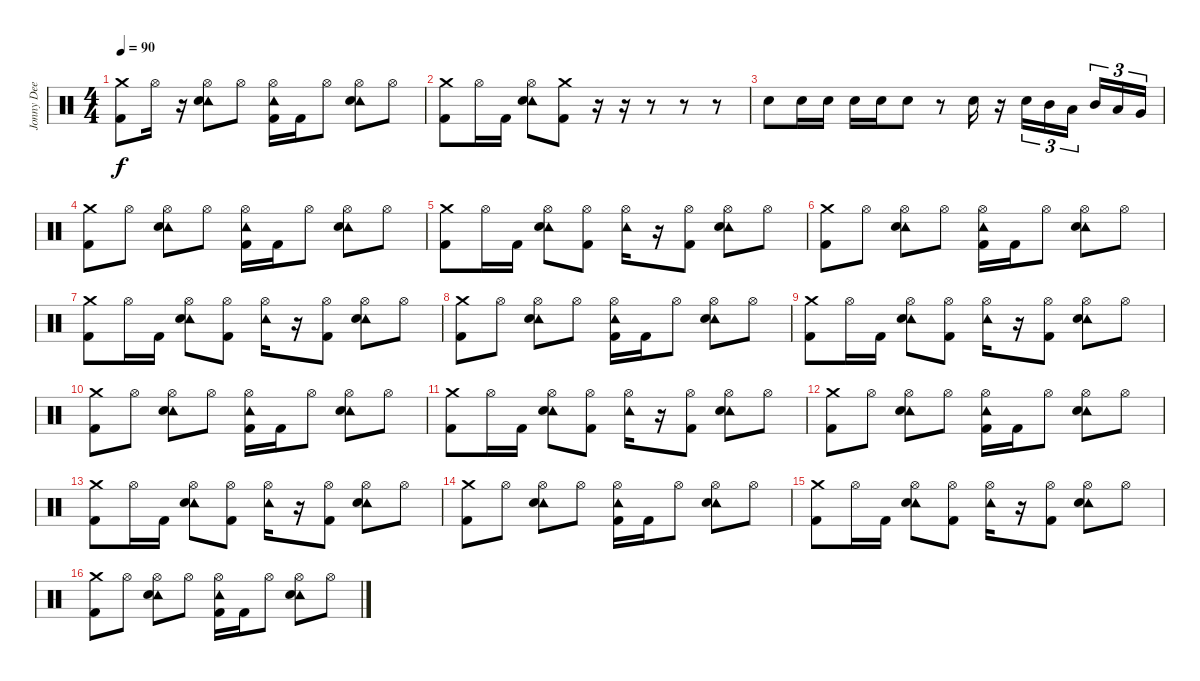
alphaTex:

\track ("Jonny Dee" "Jonny Dee") {instrument percussion}
\staff {score}
\articulation defaults
\ts (4 4)
\tempo 90
\clef neutral
\ks c
("Crash medium (hit)" "Kick (hit) 2").8{dy f} "Hi-Hat (open)".16 r.16 ("Tambourine (hit)" "Hi-Hat (open)" "Snare (hit) 2").8 "Hi-Hat (open)".8 ("Tambourine (hit)" "Hi-Hat (open)" "Kick (hit) 2").16 "Kick (hit) 2".16 "Hi-Hat (open)".8 ("Tambourine (hit)" "Hi-Hat (open)" "Snare (hit) 2").8 "Hi-Hat (open)".8 |
("Crash medium (hit)" "Kick (hit) 2").8 "Hi-Hat (open)".16 "Kick (hit) 2".16 ("Tambourine (hit)" "Hi-Hat (open)" "Snare (hit) 2").8 ("Crash medium (hit)" "Kick (hit) 2").8 r.16 r.16 r.8 r.8 r.8 |
"Snare (hit) 2".8 "Snare (hit) 2".16 "Snare (hit) 2".16 "Snare (hit) 2".16 "Snare (hit) 2".16 "Snare (hit) 2".8 r.8 "Snare (hit) 2".16 r.16 "Snare (hit) 2".16{tu (3 2)} "Mid Tom (hit)".16{tu (3 2)} "Low Tom (hit)".16{tu (3 2) beam splitsecondary} "Mid Tom (hit)".16{tu (3 2)} "Low Tom (hit)".16{tu (3 2)} "Very Low Tom (hit)".16{tu (3 2)} |
("Crash medium (hit)" "Kick (hit) 2").8 "Hi-Hat (open)".8 ("Tambourine (hit)" "Hi-Hat (open)" "Snare (hit) 2").8 "Hi-Hat (open)".8 ("Tambourine (hit)" "Hi-Hat (open)" "Kick (hit) 2").16 "Kick (hit) 2".16 "Hi-Hat (open)".8 ("Tambourine (hit)" "Hi-Hat (open)" "Snare (hit) 2").8 "Hi-Hat (open)".8 |
("Crash medium (hit)" "Kick (hit) 2").8 "Hi-Hat (open)".16 "Kick (hit) 2".16 ("Tambourine (hit)" "Hi-Hat (open)" "Snare (hit) 2").8 ("Hi-Hat (open)" "Kick (hit) 2").8 ("Tambourine (hit)" "Hi-Hat (open)").16 r.16 ("Hi-Hat (open)" "Kick (hit) 2").8 ("Tambourine (hit)" "Hi-Hat (open)" "Snare (hit) 2").8 "Hi-Hat (open)".8 |
("Crash medium (hit)" "Kick (hit) 2").8 "Hi-Hat (open)".8 ("Tambourine (hit)" "Hi-Hat (open)" "Snare (hit) 2").8 "Hi-Hat (open)".8 ("Tambourine (hit)" "Hi-Hat (open)" "Kick (hit) 2").16 "Kick (hit) 2".16 "Hi-Hat (open)".8 ("Tambourine (hit)" "Hi-Hat (open)" "Snare (hit) 2").8 "Hi-Hat (open)".8 |
("Crash medium (hit)" "Kick (hit) 2").8 "Hi-Hat (open)".16 "Kick (hit) 2".16 ("Tambourine (hit)" "Hi-Hat (open)" "Snare (hit) 2").8 ("Hi-Hat (open)" "Kick (hit) 2").8 ("Tambourine (hit)" "Hi-Hat (open)").16 r.16 ("Hi-Hat (open)" "Kick (hit) 2").8 ("Tambourine (hit)" "Hi-Hat (open)" "Snare (hit) 2").8 "Hi-Hat (open)".8 |
("Crash medium (hit)" "Kick (hit) 2").8 "Hi-Hat (open)".8 ("Tambourine (hit)" "Hi-Hat (open)" "Snare (hit) 2").8 "Hi-Hat (open)".8 ("Tambourine (hit)" "Hi-Hat (open)" "Kick (hit) 2").16 "Kick (hit) 2".16 "Hi-Hat (open)".8 ("Tambourine (hit)" "Hi-Hat (open)" "Snare (hit) 2").8 "Hi-Hat (open)".8 |
("Crash medium (hit)" "Kick (hit) 2").8 "Hi-Hat (open)".16 "Kick (hit) 2".16 ("Tambourine (hit)" "Hi-Hat (open)" "Snare (hit) 2").8 ("Hi-Hat (open)" "Kick (hit) 2").8 ("Tambourine (hit)" "Hi-Hat (open)").16 r.16 ("Hi-Hat (open)" "Kick (hit) 2").8 ("Tambourine (hit)" "Hi-Hat (open)" "Snare (hit) 2").8 "Hi-Hat (open)".8 |
("Crash medium (hit)" "Kick (hit) 2").8 "Hi-Hat (open)".8 ("Tambourine (hit)" "Hi-Hat (open)" "Snare (hit) 2").8 "Hi-Hat (open)".8 ("Tambourine (hit)" "Hi-Hat (open)" "Kick (hit) 2").16 "Kick (hit) 2".16 "Hi-Hat (open)".8 ("Tambourine (hit)" "Hi-Hat (open)" "Snare (hit) 2").8 "Hi-Hat (open)".8 |
("Crash medium (hit)" "Kick (hit) 2").8 "Hi-Hat (open)".16 "Kick (hit) 2".16 ("Tambourine (hit)" "Hi-Hat (open)" "Snare (hit) 2").8 ("Hi-Hat (open)" "Kick (hit) 2").8 ("Tambourine (hit)" "Hi-Hat (open)").16 r.16 ("Hi-Hat (open)" "Kick (hit) 2").8 ("Tambourine (hit)" "Hi-Hat (open)" "Snare (hit) 2").8 "Hi-Hat (open)".8 |
("Crash medium (hit)" "Kick (hit) 2").8 "Hi-Hat (open)".8 ("Tambourine (hit)" "Hi-Hat (open)" "Snare (hit) 2").8 "Hi-Hat (open)".8 ("Tambourine (hit)" "Hi-Hat (open)" "Kick (hit) 2").16 "Kick (hit) 2".16 "Hi-Hat (open)".8 ("Tambourine (hit)" "Hi-Hat (open)" "Snare (hit) 2").8 "Hi-Hat (open)".8 |
("Crash medium (hit)" "Kick (hit) 2").8 "Hi-Hat (open)".16 "Kick (hit) 2".16 ("Tambourine (hit)" "Hi-Hat (open)" "Snare (hit) 2").8 ("Hi-Hat (open)" "Kick (hit) 2").8 ("Tambourine (hit)" "Hi-Hat (open)").16 r.16 ("Hi-Hat (open)" "Kick (hit) 2").8 ("Tambourine (hit)" "Hi-Hat (open)" "Snare (hit) 2").8 "Hi-Hat (open)".8 |
("Crash medium (hit)" "Kick (hit) 2").8 "Hi-Hat (open)".8 ("Tambourine (hit)" "Hi-Hat (open)" "Snare (hit) 2").8 "Hi-Hat (open)".8 ("Tambourine (hit)" "Hi-Hat (open)" "Kick (hit) 2").16 "Kick (hit) 2".16 "Hi-Hat (open)".8 ("Tambourine (hit)" "Hi-Hat (open)" "Snare (hit) 2").8 "Hi-Hat (open)".8 |
("Crash medium (hit)" "Kick (hit) 2").8 "Hi-Hat (open)".16 "Kick (hit) 2".16 ("Tambourine (hit)" "Hi-Hat (open)" "Snare (hit) 2").8 ("Hi-Hat (open)" "Kick (hit) 2").8 ("Tambourine (hit)" "Hi-Hat (open)").16 r.16 ("Hi-Hat (open)" "Kick (hit) 2").8 ("Tambourine (hit)" "Hi-Hat (open)" "Snare (hit) 2").8 "Hi-Hat (open)".8 |
("Crash medium (hit)" "Kick (hit) 2").8 "Hi-Hat (open)".8 ("Tambourine (hit)" "Hi-Hat (open)" "Snare (hit) 2").8 "Hi-Hat (open)".8 ("Tambourine (hit)" "Hi-Hat (open)" "Kick (hit) 2").16 "Kick (hit) 2".16 "Hi-Hat (open)".8 ("Tambourine (hit)" "Hi-Hat (open)" "Snare (hit) 2").8 "Hi-Hat (open)".8
